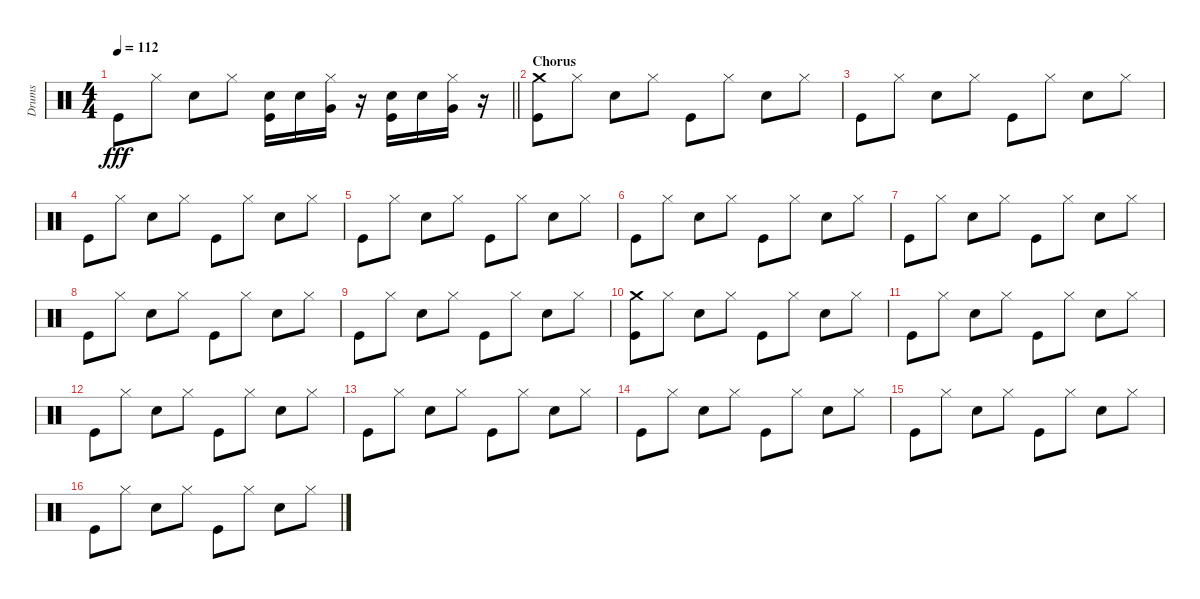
\track ("Drums" "Drums") {instrument percussion}
\staff {score}
\articulation defaults
\ts (4 4)
\tempo 112
\clef neutral
\barLineRight lightlight
\ks c "Kick (hit)".8{dy fff} "Hi-Hat (closed)".8 "Snare (hit) 2".8 "Hi-Hat (closed)".8
("Snare (hit) 2" "Kick (hit)").16 "Snare (hit) 2".16 ("Hi-Hat (closed)" "Very Low Tom (hit)").16 r.16 ("Snare (hit) 2" "Kick (hit)").16 "Snare (hit) 2".16 ("Hi-Hat (closed)" "Very Low Tom (hit)").16 r.16 |
\section ("" "Chorus")
("Crash medium (hit)" "Kick (hit)").8 "Hi-Hat (closed)".8 "Snare (hit) 2".8 "Hi-Hat (closed)".8 "Kick (hit)".8 "Hi-Hat (closed)".8 "Snare (hit) 2".8 "Hi-Hat (closed)".8 |
"Kick (hit)".8 "Hi-Hat (closed)".8 "Snare (hit) 2".8 "Hi-Hat (closed)".8 "Kick (hit)".8 "Hi-Hat (closed)".8 "Snare (hit) 2".8 "Hi-Hat (closed)".8 |
"Kick (hit)".8 "Hi-Hat (closed)".8 "Snare (hit) 2".8 "Hi-Hat (closed)".8 "Kick (hit)".8 "Hi-Hat (closed)".8 "Snare (hit) 2".8 "Hi-Hat (closed)".8 |
"Kick (hit)".8 "Hi-Hat (closed)".8 "Snare (hit) 2".8 "Hi-Hat (closed)".8 "Kick (hit)".8 "Hi-Hat (closed)".8 "Snare (hit) 2".8 "Hi-Hat (closed)".8 |
"Kick (hit)".8 "Hi-Hat (closed)".8 "Snare (hit) 2".8 "Hi-Hat (closed)".8 "Kick (hit)".8 "Hi-Hat (closed)".8 "Snare (hit) 2".8 "Hi-Hat (closed)".8 |
"Kick (hit)".8 "Hi-Hat (closed)".8 "Snare (hit) 2".8 "Hi-Hat (closed)".8 "Kick (hit)".8 "Hi-Hat (closed)".8 "Snare (hit) 2".8 "Hi-Hat (closed)".8 |
"Kick (hit)".8 "Hi-Hat (closed)".8 "Snare (hit) 2".8 "Hi-Hat (closed)".8 "Kick (hit)".8 "Hi-Hat (closed)".8 "Snare (hit) 2".8 "Hi-Hat (closed)".8 |
"Kick (hit)".8 "Hi-Hat (closed)".8 "Snare (hit) 2".8 "Hi-Hat (closed)".8 "Kick (hit)".8 "Hi-Hat (closed)".8 "Snare (hit) 2".8 "Hi-Hat (closed)".8 |
("Crash medium (hit)" "Kick (hit)").8 "Hi-Hat (closed)".8 "Snare (hit) 2".8 "Hi-Hat (closed)".8 "Kick (hit)".8 "Hi-Hat (closed)".8 "Snare (hit) 2".8 "Hi-Hat (closed)".8 |
"Kick (hit)".8 "Hi-Hat (closed)".8 "Snare (hit) 2".8 "Hi-Hat (closed)".8 "Kick (hit)".8 "Hi-Hat (closed)".8 "Snare (hit) 2".8 "Hi-Hat (closed)".8 |
"Kick (hit)".8 "Hi-Hat (closed)".8 "Snare (hit) 2".8 "Hi-Hat (closed)".8 "Kick (hit)".8 "Hi-Hat (closed)".8 "Snare (hit) 2".8 "Hi-Hat (closed)".8 |
"Kick (hit)".8 "Hi-Hat (closed)".8 "Snare (hit) 2".8 "Hi-Hat (closed)".8 "Kick (hit)".8 "Hi-Hat (closed)".8 "Snare (hit) 2".8 "Hi-Hat (closed)".8 |
"Kick (hit)".8 "Hi-Hat (closed)".8 "Snare (hit) 2".8 "Hi-Hat (closed)".8 "Kick (hit)".8 "Hi-Hat (closed)".8 "Snare (hit) 2".8 "Hi-Hat (closed)".8 |
"Kick (hit)".8 "Hi-Hat (closed)".8 "Snare (hit) 2".8 "Hi-Hat (closed)".8 "Kick (hit)".8 "Hi-Hat (closed)".8 "Snare (hit) 2".8 "Hi-Hat (closed)".8 |
"Kick (hit)".8 "Hi-Hat (closed)".8 "Snare (hit) 2".8 "Hi-Hat (closed)".8 "Kick (hit)".8 "Hi-Hat (closed)".8 "Snare (hit) 2".8 "Hi-Hat (closed)".8
